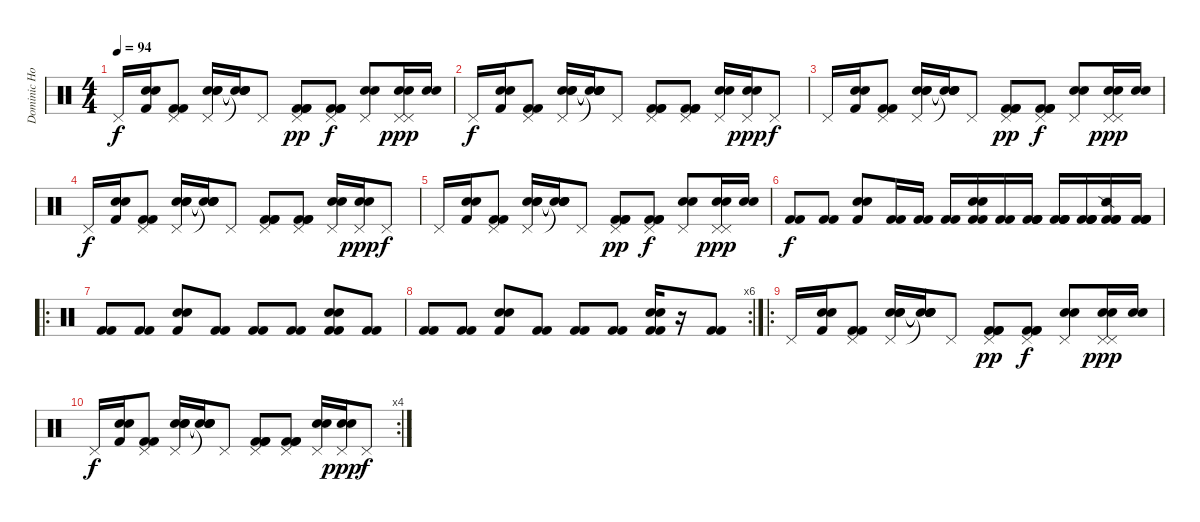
\track ("Dominic Howard" "Dominic Ho") {instrument percussion}
\staff {score}
\articulation defaults
\ts (4 4)
\tempo 94
\clef neutral
\ks c "Pedal Hi-Hat (hit)".16{dy f}
("Snare (hit) 2" "Snare (hit) 2" "Kick (hit) 2").16 ("Pedal Hi-Hat (hit)" "Kick (hit) 2" "Kick (hit) 2").8 ("Pedal Hi-Hat (hit)" "Snare (hit) 2" "Snare (hit) 2" "Snare (hit) 2").16 ("Snare (hit)"{t} "Snare (hit)"{t} "Snare (hit)"{t} "Snare (hit)"{t}).16 "Pedal Hi-Hat (hit)".8 ("Pedal Hi-Hat (hit)" "Kick (hit) 2" "Kick (hit) 2" "Kick (hit) 2").8{dy pp} ("Pedal Hi-Hat (hit)" "Kick (hit) 2" "Kick (hit) 2" "Kick (hit) 2").8{dy f} ("Pedal Hi-Hat (hit)" "Snare (hit) 2" "Snare (hit) 2").8 ("Pedal Hi-Hat (hit)" "Pedal Hi-Hat (hit)" "Snare (hit) 2" "Snare (hit) 2").16{dy ppp} ("Snare (hit) 2" "Snare (hit) 2").16 |
"Pedal Hi-Hat (hit)".16{dy f} ("Snare (hit) 2" "Snare (hit) 2" "Kick (hit) 2").16 ("Pedal Hi-Hat (hit)" "Kick (hit) 2" "Kick (hit) 2").8 ("Pedal Hi-Hat (hit)" "Snare (hit) 2" "Snare (hit) 2" "Snare (hit) 2").16 ("Snare (hit)"{t} "Snare (hit)"{t} "Snare (hit)"{t} "Snare (hit)"{t}).16 "Pedal Hi-Hat (hit)".8 ("Pedal Hi-Hat (hit)" "Kick (hit) 2" "Kick (hit) 2" "Kick (hit) 2").8 ("Pedal Hi-Hat (hit)" "Kick (hit) 2" "Kick (hit) 2" "Kick (hit) 2").8 ("Pedal Hi-Hat (hit)" "Snare (hit) 2" "Snare (hit) 2").16 ("Pedal Hi-Hat (hit)" "Snare (hit) 2" "Snare (hit) 2").16{dy ppp} "Pedal Hi-Hat (hit)".8{dy f} |
"Pedal Hi-Hat (hit)".16 ("Snare (hit) 2" "Snare (hit) 2" "Kick (hit) 2").16 ("Pedal Hi-Hat (hit)" "Kick (hit) 2" "Kick (hit) 2").8 ("Pedal Hi-Hat (hit)" "Snare (hit) 2" "Snare (hit) 2" "Snare (hit) 2").16 ("Snare (hit)"{t} "Snare (hit)"{t} "Snare (hit)"{t} "Snare (hit)"{t}).16 "Pedal Hi-Hat (hit)".8 ("Pedal Hi-Hat (hit)" "Kick (hit) 2" "Kick (hit) 2" "Kick (hit) 2").8{dy pp} ("Pedal Hi-Hat (hit)" "Kick (hit) 2" "Kick (hit) 2" "Kick (hit) 2").8{dy f} ("Pedal Hi-Hat (hit)" "Snare (hit) 2" "Snare (hit) 2").8 ("Pedal Hi-Hat (hit)" "Pedal Hi-Hat (hit)" "Snare (hit) 2" "Snare (hit) 2").16{dy ppp} ("Snare (hit) 2" "Snare (hit) 2").16 |
"Pedal Hi-Hat (hit)".16{dy f} ("Snare (hit) 2" "Snare (hit) 2" "Kick (hit) 2").16 ("Pedal Hi-Hat (hit)" "Kick (hit) 2" "Kick (hit) 2").8 ("Pedal Hi-Hat (hit)" "Snare (hit) 2" "Snare (hit) 2" "Snare (hit) 2").16 ("Snare (hit)"{t} "Snare (hit)"{t} "Snare (hit)"{t} "Snare (hit)"{t}).16 "Pedal Hi-Hat (hit)".8 ("Pedal Hi-Hat (hit)" "Kick (hit) 2" "Kick (hit) 2" "Kick (hit) 2").8 ("Pedal Hi-Hat (hit)" "Kick (hit) 2" "Kick (hit) 2" "Kick (hit) 2").8 ("Pedal Hi-Hat (hit)" "Snare (hit) 2" "Snare (hit) 2").16 ("Pedal Hi-Hat (hit)" "Snare (hit) 2" "Snare (hit) 2").16{dy ppp} "Pedal Hi-Hat (hit)".8{dy f} |
"Pedal Hi-Hat (hit)".16 ("Snare (hit) 2" "Snare (hit) 2" "Kick (hit) 2").16 ("Pedal Hi-Hat (hit)" "Kick (hit) 2" "Kick (hit) 2").8 ("Pedal Hi-Hat (hit)" "Snare (hit) 2" "Snare (hit) 2" "Snare (hit) 2").16 ("Snare (hit)"{t} "Snare (hit)"{t} "Snare (hit)"{t} "Snare (hit)"{t}).16 "Pedal Hi-Hat (hit)".8 ("Pedal Hi-Hat (hit)" "Kick (hit) 2" "Kick (hit) 2" "Kick (hit) 2").8{dy pp} ("Pedal Hi-Hat (hit)" "Kick (hit) 2" "Kick (hit) 2" "Kick (hit) 2").8{dy f} ("Pedal Hi-Hat (hit)" "Snare (hit) 2" "Snare (hit) 2").8 ("Pedal Hi-Hat (hit)" "Pedal Hi-Hat (hit)" "Snare (hit) 2" "Snare (hit) 2").16{dy ppp} ("Snare (hit) 2" "Snare (hit) 2").16 |
("Kick (hit) 2" "Kick (hit) 2").8{dy f} ("Kick (hit) 2" "Kick (hit) 2").8 ("Snare (hit) 2" "Snare (hit) 2" "Kick (hit) 2").8 ("Kick (hit) 2" "Kick (hit) 2").16 ("Kick (hit) 2" "Kick (hit) 2").16 ("Kick (hit) 2" "Kick (hit) 2").16 ("Snare (hit) 2" "Snare (hit) 2" "Kick (hit) 2" "Kick (hit) 2").16 ("Kick (hit) 2" "Kick (hit) 2").16 ("Kick (hit) 2" "Kick (hit) 2" "Kick (hit) 2" "Kick (hit) 2").16 ("Kick (hit) 2" "Kick (hit) 2" "Kick (hit) 2" "Kick (hit) 2").16 ("Kick (hit) 2" "Kick (hit) 2" "Kick (hit) 2" "Kick (hit) 2").16 ("Snare (side stick) 2" "Kick (hit) 2" "Kick (hit) 2" "Kick (hit) 2").16 ("Kick (hit) 2" "Kick (hit) 2" "Kick (hit) 2" "Kick (hit) 2").16 |
\ro
("Kick (hit) 2" "Kick (hit) 2").8 ("Kick (hit) 2" "Kick (hit) 2").8 ("Snare (hit) 2" "Snare (hit) 2" "Kick (hit) 2").8 ("Kick (hit) 2" "Kick (hit) 2").8 ("Kick (hit) 2" "Kick (hit) 2").8 ("Kick (hit) 2" "Kick (hit) 2").8 ("Snare (hit) 2" "Snare (hit) 2" "Kick (hit) 2" "Kick (hit) 2").8 ("Kick (hit) 2" "Kick (hit) 2").8 |
\rc 6
("Kick (hit) 2" "Kick (hit) 2").8 ("Kick (hit) 2" "Kick (hit) 2").8 ("Snare (hit) 2" "Snare (hit) 2" "Kick (hit) 2").8 ("Kick (hit) 2" "Kick (hit) 2").8 ("Kick (hit) 2" "Kick (hit) 2").8 ("Kick (hit) 2" "Kick (hit) 2").8 ("Snare (hit) 2" "Snare (hit) 2" "Kick (hit) 2" "Kick (hit) 2").16 r.16 ("Kick (hit) 2" "Kick (hit) 2").8 |
\ro "Pedal Hi-Hat (hit)".16
("Snare (hit) 2" "Snare (hit) 2" "Kick (hit) 2").16 ("Pedal Hi-Hat (hit)" "Kick (hit) 2" "Kick (hit) 2").8 ("Pedal Hi-Hat (hit)" "Snare (hit) 2" "Snare (hit) 2" "Snare (hit) 2").16 ("Snare (hit)"{t} "Snare (hit)"{t} "Snare (hit)"{t} "Snare (hit)"{t}).16 "Pedal Hi-Hat (hit)".8 ("Pedal Hi-Hat (hit)" "Kick (hit) 2" "Kick (hit) 2" "Kick (hit) 2").8{dy pp} ("Pedal Hi-Hat (hit)" "Kick (hit) 2" "Kick (hit) 2" "Kick (hit) 2").8{dy f} ("Pedal Hi-Hat (hit)" "Snare (hit) 2" "Snare (hit) 2").8 ("Pedal Hi-Hat (hit)" "Pedal Hi-Hat (hit)" "Snare (hit) 2" "Snare (hit) 2").16{dy ppp} ("Snare (hit) 2" "Snare (hit) 2").16 |
\rc 4 "Pedal Hi-Hat (hit)".16{dy f}
("Snare (hit) 2" "Snare (hit) 2" "Kick (hit) 2").16 ("Pedal Hi-Hat (hit)" "Kick (hit) 2" "Kick (hit) 2").8 ("Pedal Hi-Hat (hit)" "Snare (hit) 2" "Snare (hit) 2" "Snare (hit) 2").16 ("Snare (hit)"{t} "Snare (hit)"{t} "Snare (hit)"{t} "Snare (hit)"{t}).16 "Pedal Hi-Hat (hit)".8 ("Pedal Hi-Hat (hit)" "Kick (hit) 2" "Kick (hit) 2" "Kick (hit) 2").8 ("Pedal Hi-Hat (hit)" "Kick (hit) 2" "Kick (hit) 2" "Kick (hit) 2").8 ("Pedal Hi-Hat (hit)" "Snare (hit) 2" "Snare (hit) 2").16 ("Pedal Hi-Hat (hit)" "Snare (hit) 2" "Snare (hit) 2").16{dy ppp} "Pedal Hi-Hat (hit)".8{dy f}
